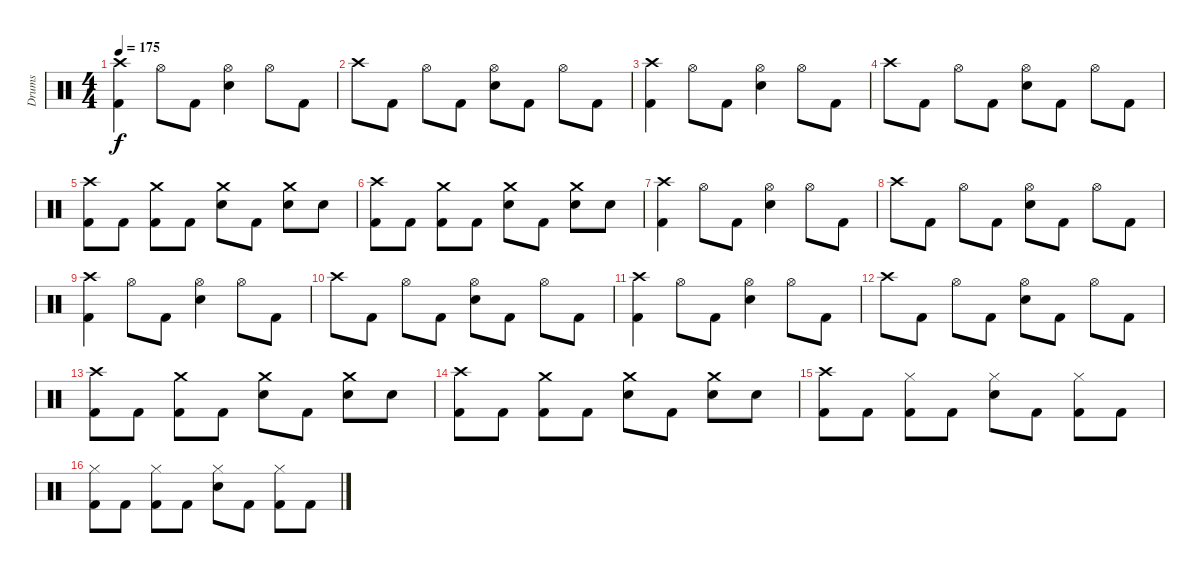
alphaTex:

\track ("Drums" "Drums") {instrument percussion}
\staff {score}
\articulation defaults
\ts (4 4)
\tempo 175
\clef neutral
\ks c
("Crash high (hit)" "Kick (hit) 2").4{dy f} "Hi-Hat (open)".8 "Kick (hit) 2".8 ("Hi-Hat (open)" "Snare (hit) 2").4 "Hi-Hat (open)".8 "Kick (hit) 2".8 |
"Crash high (hit)".8 "Kick (hit) 2".8 "Hi-Hat (open)".8 "Kick (hit) 2".8 ("Hi-Hat (open)" "Snare (hit) 2").8 "Kick (hit) 2".8 "Hi-Hat (open)".8 "Kick (hit) 2".8 |
("Crash high (hit)" "Kick (hit) 2").4 "Hi-Hat (open)".8 "Kick (hit) 2".8 ("Hi-Hat (open)" "Snare (hit) 2").4 "Hi-Hat (open)".8 "Kick (hit) 2".8 |
"Crash high (hit)".8 "Kick (hit) 2".8 "Hi-Hat (open)".8 "Kick (hit) 2".8 ("Hi-Hat (open)" "Snare (hit) 2").8 "Kick (hit) 2".8 "Hi-Hat (open)".8 "Kick (hit) 2".8 |
("Crash high (hit)" "Kick (hit) 2").8 "Kick (hit) 2".8 ("Crash medium (hit)" "Kick (hit) 2").8 "Kick (hit) 2".8 ("Crash medium (hit)" "Snare (hit) 2").8 "Kick (hit) 2".8 ("Crash medium (hit)" "Snare (hit) 2").8 "Snare (hit) 2".8 |
("Crash high (hit)" "Kick (hit) 2").8 "Kick (hit) 2".8 ("Crash medium (hit)" "Kick (hit) 2").8 "Kick (hit) 2".8 ("Crash medium (hit)" "Snare (hit) 2").8 "Kick (hit) 2".8 ("Crash medium (hit)" "Snare (hit) 2").8 "Snare (hit) 2".8 |
("Crash high (hit)" "Kick (hit) 2").4 "Hi-Hat (open)".8 "Kick (hit) 2".8 ("Hi-Hat (open)" "Snare (hit) 2").4 "Hi-Hat (open)".8 "Kick (hit) 2".8 |
"Crash high (hit)".8 "Kick (hit) 2".8 "Hi-Hat (open)".8 "Kick (hit) 2".8 ("Hi-Hat (open)" "Snare (hit) 2").8 "Kick (hit) 2".8 "Hi-Hat (open)".8 "Kick (hit) 2".8 |
("Crash high (hit)" "Kick (hit) 2").4 "Hi-Hat (open)".8 "Kick (hit) 2".8 ("Hi-Hat (open)" "Snare (hit) 2").4 "Hi-Hat (open)".8 "Kick (hit) 2".8 |
"Crash high (hit)".8 "Kick (hit) 2".8 "Hi-Hat (open)".8 "Kick (hit) 2".8 ("Hi-Hat (open)" "Snare (hit) 2").8 "Kick (hit) 2".8 "Hi-Hat (open)".8 "Kick (hit) 2".8 |
("Crash high (hit)" "Kick (hit) 2").4 "Hi-Hat (open)".8 "Kick (hit) 2".8 ("Hi-Hat (open)" "Snare (hit) 2").4 "Hi-Hat (open)".8 "Kick (hit) 2".8 |
"Crash high (hit)".8 "Kick (hit) 2".8 "Hi-Hat (open)".8 "Kick (hit) 2".8 ("Hi-Hat (open)" "Snare (hit) 2").8 "Kick (hit) 2".8 "Hi-Hat (open)".8 "Kick (hit) 2".8 |
("Crash high (hit)" "Kick (hit) 2").8 "Kick (hit) 2".8 ("Crash medium (hit)" "Kick (hit) 2").8 "Kick (hit) 2".8 ("Crash medium (hit)" "Snare (hit) 2").8 "Kick (hit) 2".8 ("Crash medium (hit)" "Snare (hit) 2").8 "Snare (hit) 2".8 |
("Crash high (hit)" "Kick (hit) 2").8 "Kick (hit) 2".8 ("Crash medium (hit)" "Kick (hit) 2").8 "Kick (hit) 2".8 ("Crash medium (hit)" "Snare (hit) 2").8 "Kick (hit) 2".8 ("Crash medium (hit)" "Snare (hit) 2").8 "Snare (hit) 2".8 |
("Crash high (hit)" "Kick (hit) 2").8 "Kick (hit) 2".8 ("Hi-Hat (closed)" "Kick (hit) 2").8 "Kick (hit) 2".8 ("Hi-Hat (closed)" "Snare (hit) 2").8 "Kick (hit) 2".8 ("Hi-Hat (closed)" "Kick (hit) 2").8 "Kick (hit) 2".8 |
("Hi-Hat (closed)" "Kick (hit) 2").8 "Kick (hit) 2".8 ("Hi-Hat (closed)" "Kick (hit) 2").8 "Kick (hit) 2".8 ("Hi-Hat (closed)" "Snare (hit) 2").8 "Kick (hit) 2".8 ("Hi-Hat (closed)" "Kick (hit) 2").8 "Kick (hit) 2".8
